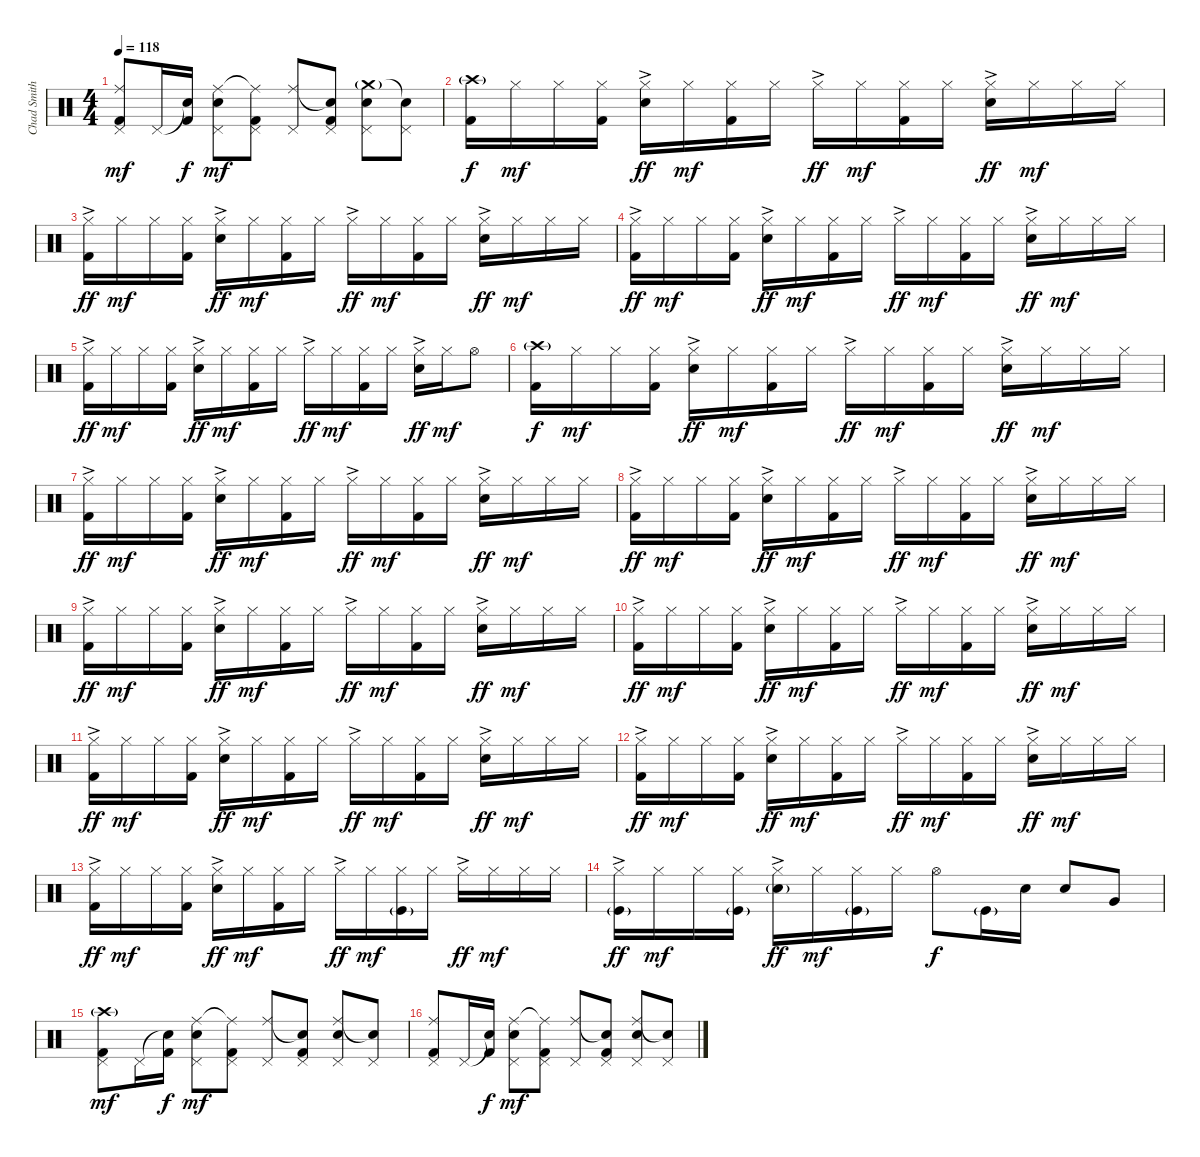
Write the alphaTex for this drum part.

\track ("Chad Smith" "Chad Smith") {instrument percussion}
\staff {score}
\articulation defaults
\ts (4 4)
\tempo 118
\clef neutral
\ks c
("Ride (middle)" "Pedal Hi-Hat (hit)" "Kick (hit) 2").8{dy mf} "Pedal Hi-Hat (hit)".16 ("Snare (hit)"{t} "Kick (hit) 2").16{dy f} ("Ride (middle)" "Pedal Hi-Hat (hit)" "Snare (hit) 2").8{dy mf} ("Ride (middle)"{t} "Pedal Hi-Hat (hit)" "Kick (hit) 2").8 ("Ride (middle)" "Pedal Hi-Hat (hit)").8 ("Snare (hit)"{t} "Pedal Hi-Hat (hit)" "Kick (hit) 2").8 ("Crash medium (hit)"{g} "Pedal Hi-Hat (hit)" "Snare (hit) 2").8 ("Snare (hit)"{t} "Pedal Hi-Hat (hit)").8 |
("Crash high (hit)"{g} "Kick (hit) 2").16{dy f} "Hi-Hat (closed)".16{dy mf} "Hi-Hat (closed)".16 ("Hi-Hat (closed)" "Kick (hit) 2").16 ("Hi-Hat (closed)"{ac} "Electric Snare (hit)").16{dy ff} "Hi-Hat (closed)".16{dy mf} ("Hi-Hat (closed)" "Kick (hit) 2").16 "Hi-Hat (closed)".16 "Hi-Hat (closed)"{ac}.16{dy ff} "Hi-Hat (closed)".16{dy mf} ("Hi-Hat (closed)" "Kick (hit) 2").16 "Hi-Hat (closed)".16 ("Hi-Hat (closed)"{ac} "Electric Snare (hit)").16{dy ff} "Hi-Hat (closed)".16{dy mf} "Hi-Hat (closed)".16 "Hi-Hat (closed)".16 |
("Hi-Hat (closed)"{ac} "Kick (hit) 2").16{dy ff} "Hi-Hat (closed)".16{dy mf} "Hi-Hat (closed)".16 ("Hi-Hat (closed)" "Kick (hit) 2").16 ("Hi-Hat (closed)"{ac} "Electric Snare (hit)").16{dy ff} "Hi-Hat (closed)".16{dy mf} ("Hi-Hat (closed)" "Kick (hit) 2").16 "Hi-Hat (closed)".16 "Hi-Hat (closed)"{ac}.16{dy ff} "Hi-Hat (closed)".16{dy mf} ("Hi-Hat (closed)" "Kick (hit) 2").16 "Hi-Hat (closed)".16 ("Hi-Hat (closed)"{ac} "Electric Snare (hit)").16{dy ff} "Hi-Hat (closed)".16{dy mf} "Hi-Hat (closed)".16 "Hi-Hat (closed)".16 |
("Hi-Hat (closed)"{ac} "Kick (hit) 2").16{dy ff} "Hi-Hat (closed)".16{dy mf} "Hi-Hat (closed)".16 ("Hi-Hat (closed)" "Kick (hit) 2").16 ("Hi-Hat (closed)"{ac} "Electric Snare (hit)").16{dy ff} "Hi-Hat (closed)".16{dy mf} ("Hi-Hat (closed)" "Kick (hit) 2").16 "Hi-Hat (closed)".16 "Hi-Hat (closed)"{ac}.16{dy ff} "Hi-Hat (closed)".16{dy mf} ("Hi-Hat (closed)" "Kick (hit) 2").16 "Hi-Hat (closed)".16 ("Hi-Hat (closed)"{ac} "Electric Snare (hit)").16{dy ff} "Hi-Hat (closed)".16{dy mf} "Hi-Hat (closed)".16 "Hi-Hat (closed)".16 |
("Hi-Hat (closed)"{ac} "Kick (hit) 2").16{dy ff} "Hi-Hat (closed)".16{dy mf} "Hi-Hat (closed)".16 ("Hi-Hat (closed)" "Kick (hit) 2").16 ("Hi-Hat (closed)"{ac} "Electric Snare (hit)").16{dy ff} "Hi-Hat (closed)".16{dy mf} ("Hi-Hat (closed)" "Kick (hit) 2").16 "Hi-Hat (closed)".16 "Hi-Hat (closed)"{ac}.16{dy ff} "Hi-Hat (closed)".16{dy mf} ("Hi-Hat (closed)" "Kick (hit) 2").16 "Hi-Hat (closed)".16 ("Hi-Hat (closed)"{ac} "Electric Snare (hit)").16{dy ff} "Hi-Hat (closed)".16{dy mf} "Hi-Hat (open)".8 |
("Crash high (hit)"{g} "Kick (hit) 2").16{dy f} "Hi-Hat (closed)".16{dy mf} "Hi-Hat (closed)".16 ("Hi-Hat (closed)" "Kick (hit) 2").16 ("Hi-Hat (closed)"{ac} "Electric Snare (hit)").16{dy ff} "Hi-Hat (closed)".16{dy mf} ("Hi-Hat (closed)" "Kick (hit) 2").16 "Hi-Hat (closed)".16 "Hi-Hat (closed)"{ac}.16{dy ff} "Hi-Hat (closed)".16{dy mf} ("Hi-Hat (closed)" "Kick (hit) 2").16 "Hi-Hat (closed)".16 ("Hi-Hat (closed)"{ac} "Electric Snare (hit)").16{dy ff} "Hi-Hat (closed)".16{dy mf} "Hi-Hat (closed)".16 "Hi-Hat (closed)".16 |
("Hi-Hat (closed)"{ac} "Kick (hit) 2").16{dy ff} "Hi-Hat (closed)".16{dy mf} "Hi-Hat (closed)".16 ("Hi-Hat (closed)" "Kick (hit) 2").16 ("Hi-Hat (closed)"{ac} "Electric Snare (hit)").16{dy ff} "Hi-Hat (closed)".16{dy mf} ("Hi-Hat (closed)" "Kick (hit) 2").16 "Hi-Hat (closed)".16 "Hi-Hat (closed)"{ac}.16{dy ff} "Hi-Hat (closed)".16{dy mf} ("Hi-Hat (closed)" "Kick (hit) 2").16 "Hi-Hat (closed)".16 ("Hi-Hat (closed)"{ac} "Electric Snare (hit)").16{dy ff} "Hi-Hat (closed)".16{dy mf} "Hi-Hat (closed)".16 "Hi-Hat (closed)".16 |
("Hi-Hat (closed)"{ac} "Kick (hit) 2").16{dy ff} "Hi-Hat (closed)".16{dy mf} "Hi-Hat (closed)".16 ("Hi-Hat (closed)" "Kick (hit) 2").16 ("Hi-Hat (closed)"{ac} "Electric Snare (hit)").16{dy ff} "Hi-Hat (closed)".16{dy mf} ("Hi-Hat (closed)" "Kick (hit) 2").16 "Hi-Hat (closed)".16 "Hi-Hat (closed)"{ac}.16{dy ff} "Hi-Hat (closed)".16{dy mf} ("Hi-Hat (closed)" "Kick (hit) 2").16 "Hi-Hat (closed)".16 ("Hi-Hat (closed)"{ac} "Electric Snare (hit)").16{dy ff} "Hi-Hat (closed)".16{dy mf} "Hi-Hat (closed)".16 "Hi-Hat (closed)".16 |
("Hi-Hat (closed)"{ac} "Kick (hit) 2").16{dy ff} "Hi-Hat (closed)".16{dy mf} "Hi-Hat (closed)".16 ("Hi-Hat (closed)" "Kick (hit) 2").16 ("Hi-Hat (closed)"{ac} "Electric Snare (hit)").16{dy ff} "Hi-Hat (closed)".16{dy mf} ("Hi-Hat (closed)" "Kick (hit) 2").16 "Hi-Hat (closed)".16 "Hi-Hat (closed)"{ac}.16{dy ff} "Hi-Hat (closed)".16{dy mf} ("Hi-Hat (closed)" "Kick (hit) 2").16 "Hi-Hat (closed)".16 ("Hi-Hat (closed)"{ac} "Electric Snare (hit)").16{dy ff} "Hi-Hat (closed)".16{dy mf} "Hi-Hat (closed)".16 "Hi-Hat (closed)".16 |
("Hi-Hat (closed)"{ac} "Kick (hit) 2").16{dy ff} "Hi-Hat (closed)".16{dy mf} "Hi-Hat (closed)".16 ("Hi-Hat (closed)" "Kick (hit) 2").16 ("Hi-Hat (closed)"{ac} "Electric Snare (hit)").16{dy ff} "Hi-Hat (closed)".16{dy mf} ("Hi-Hat (closed)" "Kick (hit) 2").16 "Hi-Hat (closed)".16 "Hi-Hat (closed)"{ac}.16{dy ff} "Hi-Hat (closed)".16{dy mf} ("Hi-Hat (closed)" "Kick (hit) 2").16 "Hi-Hat (closed)".16 ("Hi-Hat (closed)"{ac} "Electric Snare (hit)").16{dy ff} "Hi-Hat (closed)".16{dy mf} "Hi-Hat (closed)".16 "Hi-Hat (closed)".16 |
("Hi-Hat (closed)"{ac} "Kick (hit) 2").16{dy ff} "Hi-Hat (closed)".16{dy mf} "Hi-Hat (closed)".16 ("Hi-Hat (closed)" "Kick (hit) 2").16 ("Hi-Hat (closed)"{ac} "Electric Snare (hit)").16{dy ff} "Hi-Hat (closed)".16{dy mf} ("Hi-Hat (closed)" "Kick (hit) 2").16 "Hi-Hat (closed)".16 "Hi-Hat (closed)"{ac}.16{dy ff} "Hi-Hat (closed)".16{dy mf} ("Hi-Hat (closed)" "Kick (hit) 2").16 "Hi-Hat (closed)".16 ("Hi-Hat (closed)"{ac} "Electric Snare (hit)").16{dy ff} "Hi-Hat (closed)".16{dy mf} "Hi-Hat (closed)".16 "Hi-Hat (closed)".16 |
("Hi-Hat (closed)"{ac} "Kick (hit) 2").16{dy ff} "Hi-Hat (closed)".16{dy mf} "Hi-Hat (closed)".16 ("Hi-Hat (closed)" "Kick (hit) 2").16 ("Hi-Hat (closed)"{ac} "Electric Snare (hit)").16{dy ff} "Hi-Hat (closed)".16{dy mf} ("Hi-Hat (closed)" "Kick (hit) 2").16 "Hi-Hat (closed)".16 "Hi-Hat (closed)"{ac}.16{dy ff} "Hi-Hat (closed)".16{dy mf} ("Hi-Hat (closed)" "Kick (hit) 2").16 "Hi-Hat (closed)".16 ("Hi-Hat (closed)"{ac} "Electric Snare (hit)").16{dy ff} "Hi-Hat (closed)".16{dy mf} "Hi-Hat (closed)".16 "Hi-Hat (closed)".16 |
("Hi-Hat (closed)"{ac} "Kick (hit) 2").16{dy ff} "Hi-Hat (closed)".16{dy mf} "Hi-Hat (closed)".16 ("Hi-Hat (closed)" "Kick (hit) 2").16 ("Hi-Hat (closed)"{ac} "Electric Snare (hit)").16{dy ff} "Hi-Hat (closed)".16{dy mf} ("Hi-Hat (closed)" "Kick (hit) 2").16 "Hi-Hat (closed)".16 "Hi-Hat (closed)"{ac}.16{dy ff} "Hi-Hat (closed)".16{dy mf} ("Hi-Hat (closed)" "Kick (hit)"{g}).16 "Hi-Hat (closed)".16 "Hi-Hat (closed)"{ac}.16{dy ff} "Hi-Hat (closed)".16{dy mf} "Hi-Hat (closed)".16 "Hi-Hat (closed)".16 |
("Hi-Hat (closed)"{ac} "Kick (hit)"{g}).16{dy ff} "Hi-Hat (closed)".16{dy mf} "Hi-Hat (closed)".16 ("Hi-Hat (closed)" "Kick (hit)"{g}).16 ("Hi-Hat (closed)"{ac} "Snare (hit) 2"{g}).16{dy ff} "Hi-Hat (closed)".16{dy mf} ("Hi-Hat (closed)" "Kick (hit)"{g}).16 "Hi-Hat (closed)".16 "Hi-Hat (open)".8{dy f} "Kick (hit)"{g}.16 "Electric Snare (hit)".16 "Electric Snare (hit)".8 "Very Low Tom (hit)".8 |
("Crash high (hit)"{g} "Pedal Hi-Hat (hit)" "Kick (hit) 2").8{dy mf} "Pedal Hi-Hat (hit)".16 ("Snare (hit)"{t} "Kick (hit) 2").16{dy f} ("Ride (middle)" "Pedal Hi-Hat (hit)" "Snare (hit) 2").8{dy mf} ("Ride (middle)"{t} "Pedal Hi-Hat (hit)" "Kick (hit) 2").8 ("Ride (middle)" "Pedal Hi-Hat (hit)").8 ("Snare (hit)"{t} "Pedal Hi-Hat (hit)" "Kick (hit) 2").8 ("Ride (middle)" "Pedal Hi-Hat (hit)" "Snare (hit) 2").8 ("Snare (hit)"{t} "Pedal Hi-Hat (hit)").8 |
("Ride (middle)" "Pedal Hi-Hat (hit)" "Kick (hit) 2").8 "Pedal Hi-Hat (hit)".16 ("Snare (hit)"{t} "Kick (hit) 2").16{dy f} ("Ride (middle)" "Pedal Hi-Hat (hit)" "Snare (hit) 2").8{dy mf} ("Ride (middle)"{t} "Pedal Hi-Hat (hit)" "Kick (hit) 2").8 ("Ride (middle)" "Pedal Hi-Hat (hit)").8 ("Snare (hit)"{t} "Pedal Hi-Hat (hit)" "Kick (hit) 2").8 ("Ride (middle)" "Pedal Hi-Hat (hit)" "Snare (hit) 2").8 ("Snare (hit)"{t} "Pedal Hi-Hat (hit)").8
